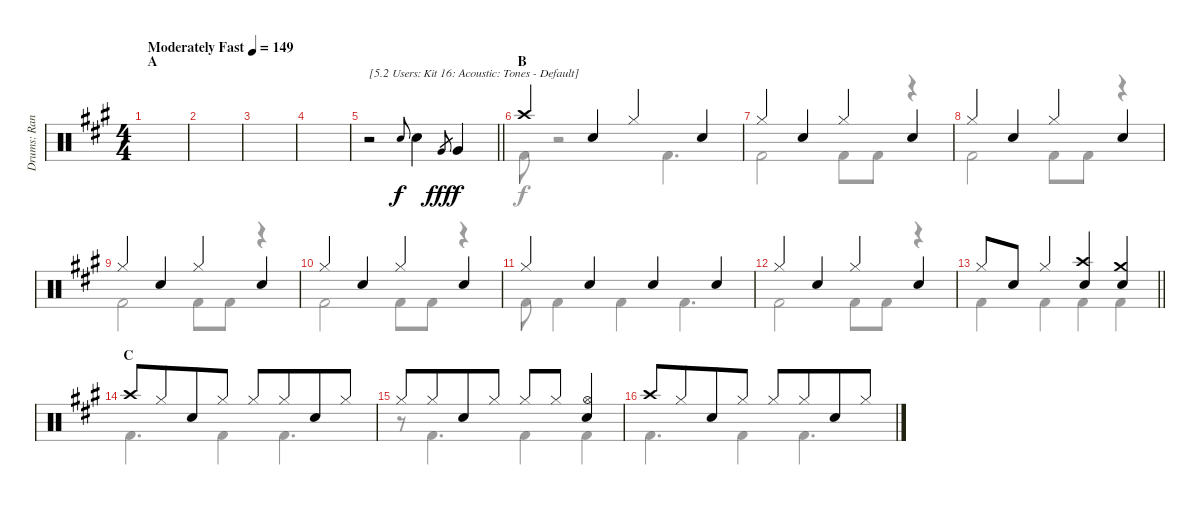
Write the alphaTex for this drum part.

\track ("Drums: Randy" "Drums: Ran") {instrument percussion}
\staff {score}
\articulation defaults
\voice
\ts (4 4)
\section ("" "A")
\tempo (149 "Moderately Fast")
\clef neutral
\ks a
|
|
|
|
\barLineRight lightlight
r.2{txt "[5.2 Users: Kit 16: Acoustic: Tones - Default]"} "Electric Snare (hit)".8{gr onbeat} "Snare (hit) 2".4{dy f} "Very Low Tom (hit)".8{gr dy fff} "Very Low Tom (hit)".4{dy f} |
\section ("" "B")
"Crash high (hit)".4 "Snare (hit) 2".4 "Hi-Hat (closed)".4 "Snare (hit) 2".4 |
"Hi-Hat (closed)".4 "Snare (hit) 2".4 "Hi-Hat (closed)".4 "Snare (hit) 2".4 |
"Hi-Hat (closed)".4 "Snare (hit) 2".4 "Hi-Hat (closed)".4 "Snare (hit) 2".4 |
"Hi-Hat (closed)".4 "Snare (hit) 2".4 "Hi-Hat (closed)".4 "Snare (hit) 2".4 |
"Hi-Hat (closed)".4 "Snare (hit) 2".4 "Hi-Hat (closed)".4 "Snare (hit) 2".4 |
"Hi-Hat (closed)".4 "Snare (hit) 2".4 "Snare (hit) 2".4 "Snare (hit) 2".4 |
"Hi-Hat (closed)".4 "Snare (hit) 2".4 "Hi-Hat (closed)".4 "Snare (hit) 2".4 |
\barLineRight lightlight "Hi-Hat (closed)".8 "Snare (hit) 2".8 "Hi-Hat (closed)".4
("Crash high (hit)" "Snare (hit) 2").4 ("Crash medium (hit)" "Snare (hit) 2").4 |
\section ("" "C")
"Crash high (hit)".8 "Hi-Hat (closed)".8{beam merge} "Snare (hit) 2".8 "Hi-Hat (closed)".8 "Hi-Hat (closed)".8 "Hi-Hat (closed)".8{beam merge} "Snare (hit) 2".8 "Hi-Hat (closed)".8 |
"Hi-Hat (closed)".8 "Hi-Hat (closed)".8{beam merge} "Snare (hit) 2".8 "Hi-Hat (closed)".8 "Hi-Hat (closed)".8 "Hi-Hat (closed)".8 ("Hi-Hat (open)" "Snare (hit) 2").4 |
"Crash high (hit)".8 "Hi-Hat (closed)".8{beam merge} "Snare (hit) 2".8 "Hi-Hat (closed)".8 "Hi-Hat (closed)".8 "Hi-Hat (closed)".8{beam merge} "Snare (hit) 2".8 "Hi-Hat (closed)".8
\voice
\clef neutral
\ottava regular
\simile none
\ks a
|
|
|
|
\barLineRight lightlight
|
"Kick (hit) 2".8 r.2 "Kick (hit) 2".4{d} |
"Kick (hit) 2".2 "Kick (hit) 2".8 "Kick (hit) 2".8 r.4 |
"Kick (hit) 2".2 "Kick (hit) 2".8 "Kick (hit) 2".8 r.4 |
"Kick (hit) 2".2 "Kick (hit) 2".8 "Kick (hit) 2".8 r.4 |
"Kick (hit) 2".2 "Kick (hit) 2".8 "Kick (hit) 2".8 r.4 |
"Kick (hit) 2".8 "Kick (hit) 2".4 "Kick (hit) 2".4 "Kick (hit) 2".4{d} |
"Kick (hit) 2".2 "Kick (hit) 2".8 "Kick (hit) 2".8 r.4 |
\barLineRight lightlight "Kick (hit) 2".4 "Kick (hit) 2".4 "Kick (hit) 2".4 "Kick (hit) 2".4
|
"Kick (hit) 2".4{d} "Kick (hit) 2".4 "Kick (hit) 2".4{d} |
r.8 "Kick (hit) 2".4{d} "Kick (hit) 2".4 "Kick (hit) 2".4 |
"Kick (hit) 2".4{d} "Kick (hit) 2".4 "Kick (hit) 2".4{d}
